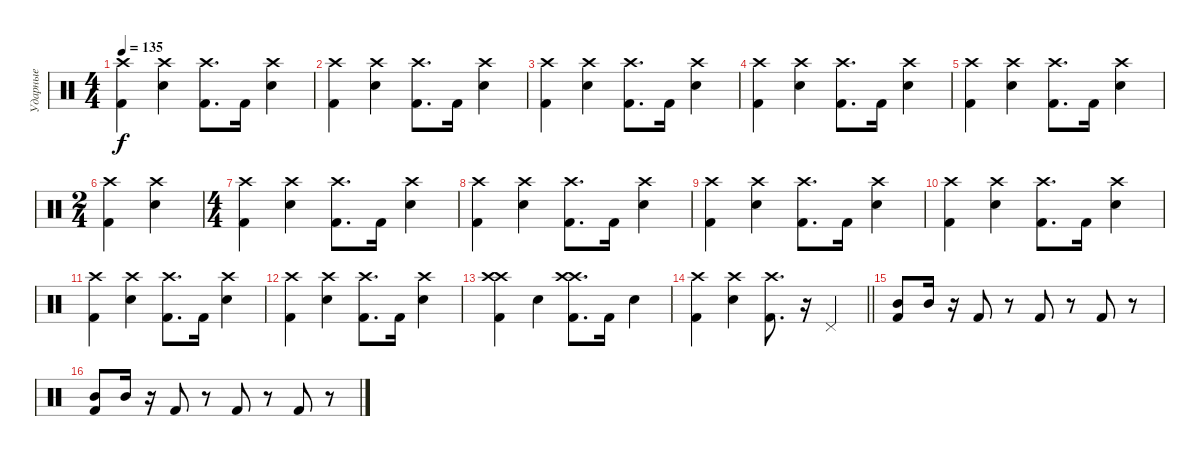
\track ("Ударные" "Ударные") {instrument percussion}
\staff {score}
\articulation defaults
\ts (4 4)
\tempo 135
\clef neutral
\ks c
("Crash high (hit)" "Kick (hit) 2").4{dy f} ("Crash high (hit)" "Electric Snare (hit)").4 ("Crash high (hit)" "Kick (hit) 2").8{d} "Kick (hit) 2".16 ("Crash high (hit)" "Electric Snare (hit)").4 |
("Crash high (hit)" "Kick (hit) 2").4 ("Crash high (hit)" "Electric Snare (hit)").4 ("Crash high (hit)" "Kick (hit) 2").8{d} "Kick (hit) 2".16 ("Crash high (hit)" "Electric Snare (hit)").4 |
("Crash high (hit)" "Kick (hit) 2").4 ("Crash high (hit)" "Electric Snare (hit)").4 ("Crash high (hit)" "Kick (hit) 2").8{d} "Kick (hit) 2".16 ("Crash high (hit)" "Electric Snare (hit)").4 |
("Crash high (hit)" "Kick (hit) 2").4 ("Crash high (hit)" "Electric Snare (hit)").4 ("Crash high (hit)" "Kick (hit) 2").8{d} "Kick (hit) 2".16 ("Crash high (hit)" "Electric Snare (hit)").4 |
("Crash high (hit)" "Kick (hit) 2").4 ("Crash high (hit)" "Electric Snare (hit)").4 ("Crash high (hit)" "Kick (hit) 2").8{d} "Kick (hit) 2".16 ("Crash high (hit)" "Electric Snare (hit)").4 |
\ts (2 4)
("Crash high (hit)" "Kick (hit) 2").4 ("Crash high (hit)" "Electric Snare (hit)").4 |
\ts (4 4)
("Crash high (hit)" "Kick (hit) 2").4 ("Crash high (hit)" "Electric Snare (hit)").4 ("Crash high (hit)" "Kick (hit) 2").8{d} "Kick (hit) 2".16 ("Crash high (hit)" "Electric Snare (hit)").4 |
("Crash high (hit)" "Kick (hit) 2").4 ("Crash high (hit)" "Electric Snare (hit)").4 ("Crash high (hit)" "Kick (hit) 2").8{d} "Kick (hit) 2".16 ("Crash high (hit)" "Electric Snare (hit)").4 |
("Crash high (hit)" "Kick (hit) 2").4 ("Crash high (hit)" "Electric Snare (hit)").4 ("Crash high (hit)" "Kick (hit) 2").8{d} "Kick (hit) 2".16 ("Crash high (hit)" "Electric Snare (hit)").4 |
("Crash high (hit)" "Kick (hit) 2").4 ("Crash high (hit)" "Electric Snare (hit)").4 ("Crash high (hit)" "Kick (hit) 2").8{d} "Kick (hit) 2".16 ("Crash high (hit)" "Electric Snare (hit)").4 |
("Crash high (hit)" "Kick (hit) 2").4 ("Crash high (hit)" "Electric Snare (hit)").4 ("Crash high (hit)" "Kick (hit) 2").8{d} "Kick (hit) 2".16 ("Crash high (hit)" "Electric Snare (hit)").4 |
("Crash high (hit)" "Kick (hit) 2").4 ("Crash high (hit)" "Electric Snare (hit)").4 ("Crash high (hit)" "Kick (hit) 2").8{d} "Kick (hit) 2".16 ("Crash high (hit)" "Electric Snare (hit)").4 |
("Crash high (hit)" "Crash high (hit)" "Kick (hit) 2").4 "Electric Snare (hit)".4 ("Crash high (hit)" "Crash high (hit)" "Kick (hit) 2").8{d} "Kick (hit) 2".16 "Electric Snare (hit)".4 |
\barLineRight lightlight
("Crash high (hit)" "Kick (hit) 2").4 ("Crash high (hit)" "Electric Snare (hit)").4 ("Crash high (hit)" "Kick (hit) 2").8{d} r.16 "Pedal Hi-Hat (hit)".4 |
("Kick (hit) 2" "Mid Tom (hit)").8 "Mid Tom (hit)".16 r.16 "Kick (hit) 2".8 r.8 "Kick (hit) 2".8 r.8 "Kick (hit) 2".8 r.8 |
("Kick (hit) 2" "Mid Tom (hit)").8 "Mid Tom (hit)".16 r.16 "Kick (hit) 2".8 r.8 "Kick (hit) 2".8 r.8 "Kick (hit) 2".8 r.8
